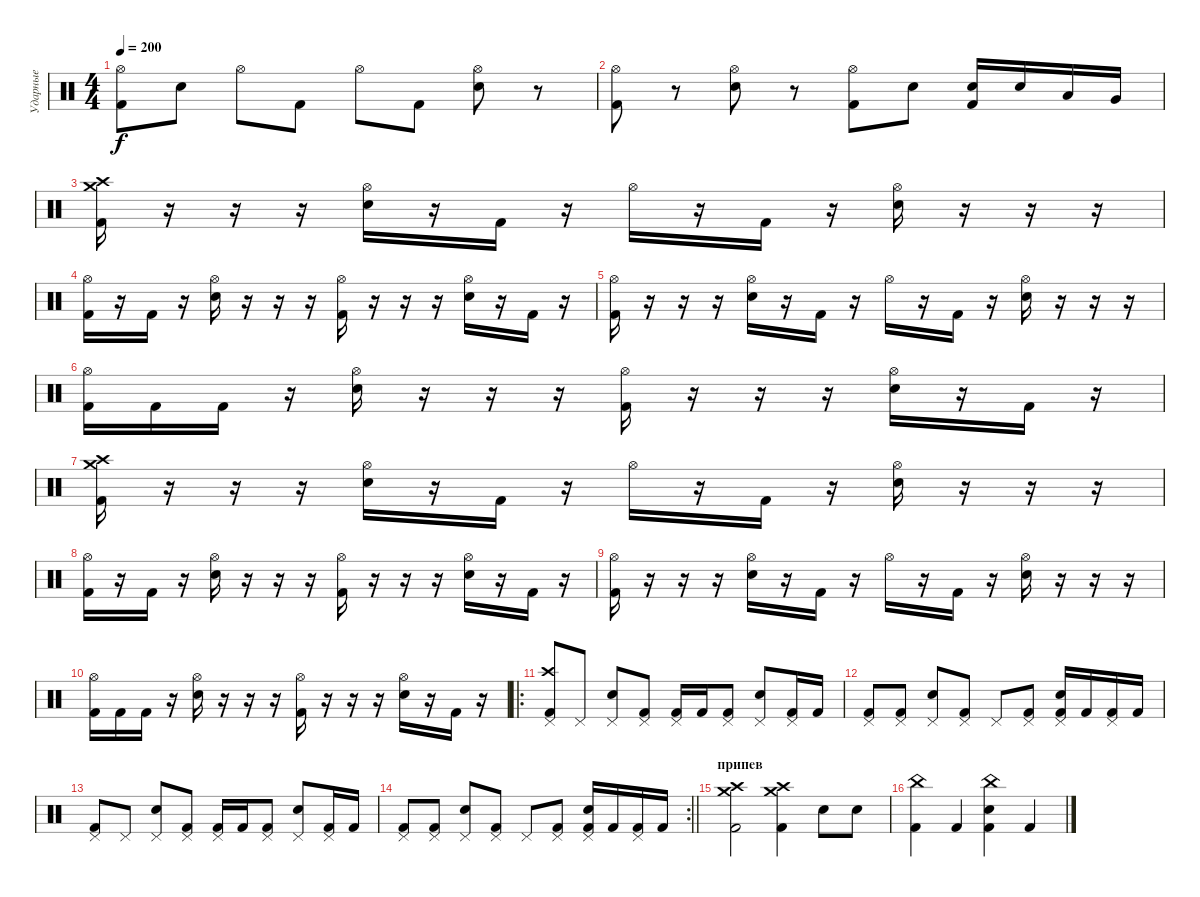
\track ("Ударные" "Ударные") {instrument percussion}
\staff {score}
\articulation defaults
\ts (4 4)
\tempo 200
\clef neutral
\ks c
("Kick (hit) 2" "Hi-Hat (open)").8{dy f} "Snare (hit) 2".8 "Hi-Hat (open)".8 "Kick (hit) 2".8 "Hi-Hat (open)".8 "Kick (hit) 2".8 ("Snare (hit) 2" "Hi-Hat (open)").8 r.8 |
("Kick (hit) 2" "Hi-Hat (open)").8 r.8 ("Snare (hit) 2" "Hi-Hat (open)").8 r.8 ("Kick (hit) 2" "Hi-Hat (open)").8 "Snare (hit) 2".8 ("Snare (hit) 2" "Kick (hit) 2").16 "Snare (hit) 2".16 "Low Tom (hit)".16 "Very Low Tom (hit)".16 |
("Kick (hit) 2" "Crash medium (hit)" "Crash high (hit)").16 r.16 r.16 r.16 ("Snare (hit) 2" "Hi-Hat (open)").16 r.16 "Kick (hit) 2".16 r.16 "Hi-Hat (open)".16 r.16 "Kick (hit) 2".16 r.16 ("Snare (hit) 2" "Hi-Hat (open)").16 r.16 r.16 r.16 |
("Kick (hit) 2" "Hi-Hat (open)").16 r.16 "Kick (hit) 2".16 r.16 ("Snare (hit) 2" "Hi-Hat (open)").16 r.16 r.16 r.16 ("Kick (hit) 2" "Hi-Hat (open)").16 r.16 r.16 r.16 ("Snare (hit) 2" "Hi-Hat (open)").16 r.16 "Kick (hit) 2".16 r.16 |
("Kick (hit) 2" "Hi-Hat (open)").16 r.16 r.16 r.16 ("Snare (hit) 2" "Hi-Hat (open)").16 r.16 "Kick (hit) 2".16 r.16 "Hi-Hat (open)".16 r.16 "Kick (hit) 2".16 r.16 ("Snare (hit) 2" "Hi-Hat (open)").16 r.16 r.16 r.16 |
("Kick (hit) 2" "Hi-Hat (open)").16 "Kick (hit) 2".16 "Kick (hit) 2".16 r.16 ("Snare (hit) 2" "Hi-Hat (open)").16 r.16 r.16 r.16 ("Kick (hit) 2" "Hi-Hat (open)").16 r.16 r.16 r.16 ("Snare (hit) 2" "Hi-Hat (open)").16 r.16 "Kick (hit) 2".16 r.16 |
("Kick (hit) 2" "Crash medium (hit)" "Crash high (hit)").16 r.16 r.16 r.16 ("Snare (hit) 2" "Hi-Hat (open)").16 r.16 "Kick (hit) 2".16 r.16 "Hi-Hat (open)".16 r.16 "Kick (hit) 2".16 r.16 ("Snare (hit) 2" "Hi-Hat (open)").16 r.16 r.16 r.16 |
("Kick (hit) 2" "Hi-Hat (open)").16 r.16 "Kick (hit) 2".16 r.16 ("Snare (hit) 2" "Hi-Hat (open)").16 r.16 r.16 r.16 ("Kick (hit) 2" "Hi-Hat (open)").16 r.16 r.16 r.16 ("Snare (hit) 2" "Hi-Hat (open)").16 r.16 "Kick (hit) 2".16 r.16 |
("Kick (hit) 2" "Hi-Hat (open)").16 r.16 r.16 r.16 ("Snare (hit) 2" "Hi-Hat (open)").16 r.16 "Kick (hit) 2".16 r.16 "Hi-Hat (open)".16 r.16 "Kick (hit) 2".16 r.16 ("Snare (hit) 2" "Hi-Hat (open)").16 r.16 r.16 r.16 |
("Kick (hit) 2" "Hi-Hat (open)").16 "Kick (hit) 2".16 "Kick (hit) 2".16 r.16 ("Snare (hit) 2" "Hi-Hat (open)").16 r.16 r.16 r.16 ("Kick (hit) 2" "Hi-Hat (open)").16 r.16 r.16 r.16 ("Snare (hit) 2" "Hi-Hat (open)").16 r.16 "Kick (hit) 2".16 r.16 |
\ro
("Crash high (hit)" "Pedal Hi-Hat (hit)" "Kick (hit) 2").8 "Pedal Hi-Hat (hit)".8 ("Snare (hit) 2" "Pedal Hi-Hat (hit)").8 ("Pedal Hi-Hat (hit)" "Kick (hit) 2").8 ("Pedal Hi-Hat (hit)" "Kick (hit) 2").16 "Kick (hit) 2".16 ("Pedal Hi-Hat (hit)" "Kick (hit) 2").8 ("Snare (hit) 2" "Pedal Hi-Hat (hit)").8 ("Pedal Hi-Hat (hit)" "Kick (hit) 2").16 "Kick (hit) 2".16 |
("Pedal Hi-Hat (hit)" "Kick (hit) 2").8 ("Pedal Hi-Hat (hit)" "Kick (hit) 2").8 ("Snare (hit) 2" "Pedal Hi-Hat (hit)").8 ("Pedal Hi-Hat (hit)" "Kick (hit) 2").8 "Pedal Hi-Hat (hit)".8 ("Pedal Hi-Hat (hit)" "Kick (hit) 2").8 ("Snare (hit) 2" "Pedal Hi-Hat (hit)" "Kick (hit) 2").16 "Kick (hit) 2".16 ("Pedal Hi-Hat (hit)" "Kick (hit) 2").16 "Kick (hit) 2".16 |
("Pedal Hi-Hat (hit)" "Kick (hit) 2").8 "Pedal Hi-Hat (hit)".8 ("Snare (hit) 2" "Pedal Hi-Hat (hit)").8 ("Pedal Hi-Hat (hit)" "Kick (hit) 2").8 ("Pedal Hi-Hat (hit)" "Kick (hit) 2").16 "Kick (hit) 2".16 ("Pedal Hi-Hat (hit)" "Kick (hit) 2").8 ("Snare (hit) 2" "Pedal Hi-Hat (hit)").8 ("Pedal Hi-Hat (hit)" "Kick (hit) 2").16 "Kick (hit) 2".16 |
\rc 2
\barLineRight lightlight
("Pedal Hi-Hat (hit)" "Kick (hit) 2").8 ("Pedal Hi-Hat (hit)" "Kick (hit) 2").8 ("Snare (hit) 2" "Pedal Hi-Hat (hit)").8 ("Pedal Hi-Hat (hit)" "Kick (hit) 2").8 "Pedal Hi-Hat (hit)".8 ("Pedal Hi-Hat (hit)" "Kick (hit) 2").8 ("Snare (hit) 2" "Pedal Hi-Hat (hit)" "Kick (hit) 2").16 "Kick (hit) 2".16 ("Pedal Hi-Hat (hit)" "Kick (hit) 2").16 "Kick (hit) 2".16 |
\section ("" "припев")
("Crash medium (hit)" "Crash high (hit)" "Kick (hit) 2").2 ("Crash high (hit)" "Crash medium (hit)" "Kick (hit) 2").4 "Snare (hit) 2".8 "Snare (hit) 2".8 |
("China (hit)" "Kick (hit) 2").4 "Kick (hit) 2".4 ("Snare (hit) 2" "China (hit)" "Kick (hit) 2").4 "Kick (hit) 2".4
